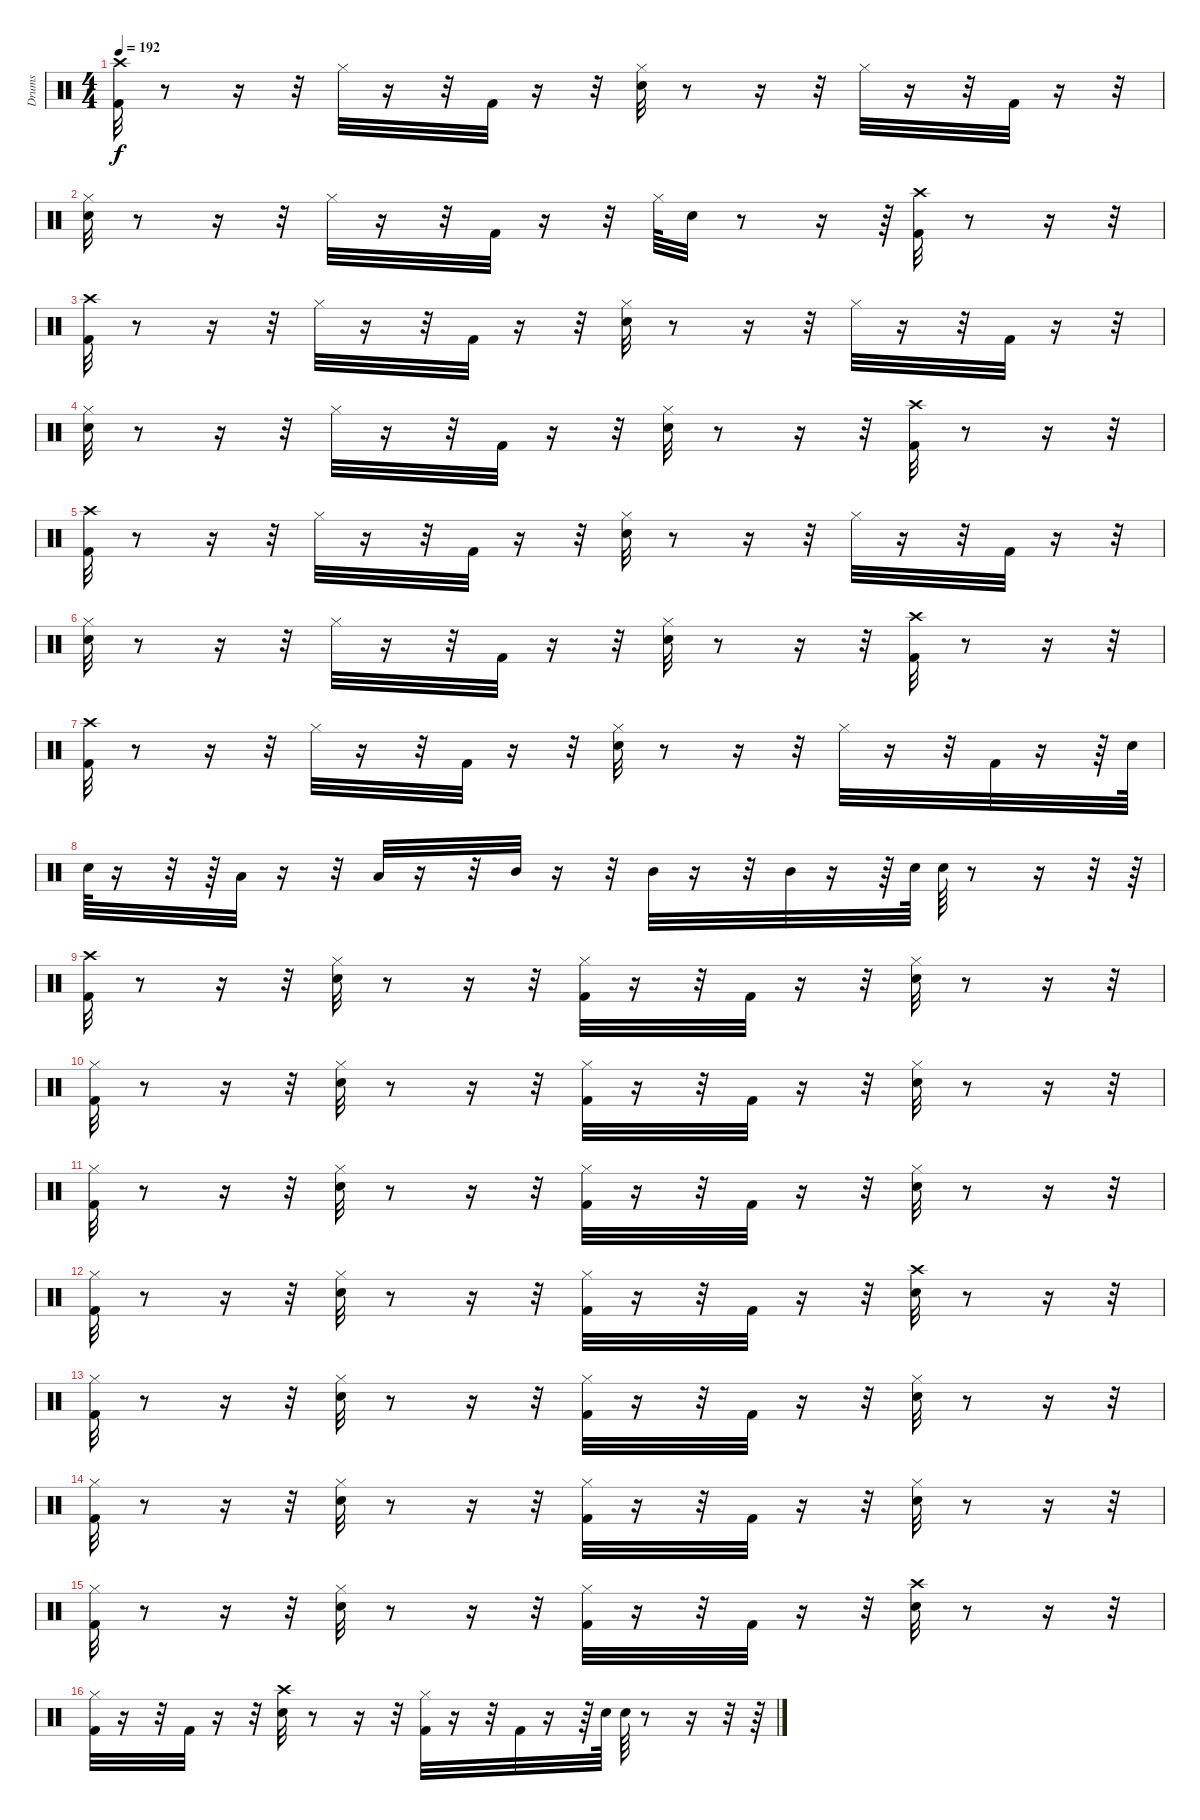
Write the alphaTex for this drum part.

\track ("Drums" "Drums") {instrument percussion}
\staff {score}
\articulation defaults
\ts (4 4)
\tempo 192
\clef neutral
\ks c
("Kick (hit) 2" "Crash high (hit)").32{dy f} r.8 r.16 r.32 "Hi-Hat (closed)".32 r.16 r.32 "Kick (hit) 2".32 r.16 r.32 ("Snare (hit) 2" "Hi-Hat (closed)").32 r.8 r.16 r.32 "Hi-Hat (closed)".32 r.16 r.32 "Kick (hit) 2".32 r.16 r.32 |
("Hi-Hat (closed)" "Snare (hit) 2").32 r.8 r.16 r.32 "Hi-Hat (closed)".32 r.16 r.32 "Kick (hit) 2".32 r.16 r.32 "Hi-Hat (closed)".64 "Snare (hit) 2".32 r.8 r.16 r.64 ("Crash high (hit)" "Kick (hit) 2").32 r.8 r.16 r.32 |
("Kick (hit) 2" "Crash high (hit)").32 r.8 r.16 r.32 "Hi-Hat (closed)".32 r.16 r.32 "Kick (hit) 2".32 r.16 r.32 ("Snare (hit) 2" "Hi-Hat (closed)").32 r.8 r.16 r.32 "Hi-Hat (closed)".32 r.16 r.32 "Kick (hit) 2".32 r.16 r.32 |
("Hi-Hat (closed)" "Snare (hit) 2").32 r.8 r.16 r.32 "Hi-Hat (closed)".32 r.16 r.32 "Kick (hit) 2".32 r.16 r.32 ("Snare (hit) 2" "Hi-Hat (closed)").32 r.8 r.16 r.32 ("Crash high (hit)" "Kick (hit) 2").32 r.8 r.16 r.32 |
("Kick (hit) 2" "Crash high (hit)").32 r.8 r.16 r.32 "Hi-Hat (closed)".32 r.16 r.32 "Kick (hit) 2".32 r.16 r.32 ("Snare (hit) 2" "Hi-Hat (closed)").32 r.8 r.16 r.32 "Hi-Hat (closed)".32 r.16 r.32 "Kick (hit) 2".32 r.16 r.32 |
("Hi-Hat (closed)" "Snare (hit) 2").32 r.8 r.16 r.32 "Hi-Hat (closed)".32 r.16 r.32 "Kick (hit) 2".32 r.16 r.32 ("Snare (hit) 2" "Hi-Hat (closed)").32 r.8 r.16 r.32 ("Crash high (hit)" "Kick (hit) 2").32 r.8 r.16 r.32 |
("Kick (hit) 2" "Crash high (hit)").32 r.8 r.16 r.32 "Hi-Hat (closed)".32 r.16 r.32 "Kick (hit) 2".32 r.16 r.32 ("Snare (hit) 2" "Hi-Hat (closed)").32 r.8 r.16 r.32 "Hi-Hat (closed)".32 r.16 r.32 "Kick (hit) 2".32 r.16 r.64 "Snare (hit) 2".64 |
"Snare (hit) 2".64 r.16 r.32 r.64 "Low Tom (hit)".32 r.16 r.32 "Low Tom (hit)".32 r.16 r.32 "Mid Tom (hit)".32 r.16 r.32 "Mid Tom (hit)".32 r.16 r.32 "Mid Tom (hit)".32 r.16 r.64 "Snare (hit) 2".64 "Snare (hit) 2".64 r.8 r.16 r.32 r.64 |
("Kick (hit) 2" "Crash high (hit)").32 r.8 r.16 r.32 ("Hi-Hat (closed)" "Snare (hit) 2").32 r.8 r.16 r.32 ("Kick (hit) 2" "Hi-Hat (closed)").32 r.16 r.32 "Kick (hit) 2".32 r.16 r.32 ("Snare (hit) 2" "Hi-Hat (closed)").32 r.8 r.16 r.32 |
("Kick (hit) 2" "Hi-Hat (closed)").32 r.8 r.16 r.32 ("Snare (hit) 2" "Hi-Hat (closed)").32 r.8 r.16 r.32 ("Kick (hit) 2" "Hi-Hat (closed)").32 r.16 r.32 "Kick (hit) 2".32 r.16 r.32 ("Snare (hit) 2" "Hi-Hat (closed)").32 r.8 r.16 r.32 |
("Kick (hit) 2" "Hi-Hat (closed)").32 r.8 r.16 r.32 ("Snare (hit) 2" "Hi-Hat (closed)").32 r.8 r.16 r.32 ("Kick (hit) 2" "Hi-Hat (closed)").32 r.16 r.32 "Kick (hit) 2".32 r.16 r.32 ("Snare (hit) 2" "Hi-Hat (closed)").32 r.8 r.16 r.32 |
("Kick (hit) 2" "Hi-Hat (closed)").32 r.8 r.16 r.32 ("Snare (hit) 2" "Hi-Hat (closed)").32 r.8 r.16 r.32 ("Kick (hit) 2" "Hi-Hat (closed)").32 r.16 r.32 "Kick (hit) 2".32 r.16 r.32 ("Crash high (hit)" "Snare (hit) 2").32 r.8 r.16 r.32 |
("Kick (hit) 2" "Hi-Hat (closed)").32 r.8 r.16 r.32 ("Snare (hit) 2" "Hi-Hat (closed)").32 r.8 r.16 r.32 ("Kick (hit) 2" "Hi-Hat (closed)").32 r.16 r.32 "Kick (hit) 2".32 r.16 r.32 ("Snare (hit) 2" "Hi-Hat (closed)").32 r.8 r.16 r.32 |
("Kick (hit) 2" "Hi-Hat (closed)").32 r.8 r.16 r.32 ("Snare (hit) 2" "Hi-Hat (closed)").32 r.8 r.16 r.32 ("Kick (hit) 2" "Hi-Hat (closed)").32 r.16 r.32 "Kick (hit) 2".32 r.16 r.32 ("Snare (hit) 2" "Hi-Hat (closed)").32 r.8 r.16 r.32 |
("Kick (hit) 2" "Hi-Hat (closed)").32 r.8 r.16 r.32 ("Snare (hit) 2" "Hi-Hat (closed)").32 r.8 r.16 r.32 ("Kick (hit) 2" "Hi-Hat (closed)").32 r.16 r.32 "Kick (hit) 2".32 r.16 r.32 ("Crash high (hit)" "Snare (hit) 2").32 r.8 r.16 r.32 |
("Kick (hit) 2" "Hi-Hat (closed)").32 r.16 r.32 "Kick (hit) 2".32 r.16 r.32 ("Crash high (hit)" "Snare (hit) 2").32 r.8 r.16 r.32 ("Kick (hit) 2" "Hi-Hat (closed)").32 r.16 r.32 "Kick (hit) 2".32 r.16 r.64 "Snare (hit) 2".64 "Snare (hit) 2".64 r.8 r.16 r.32 r.64
